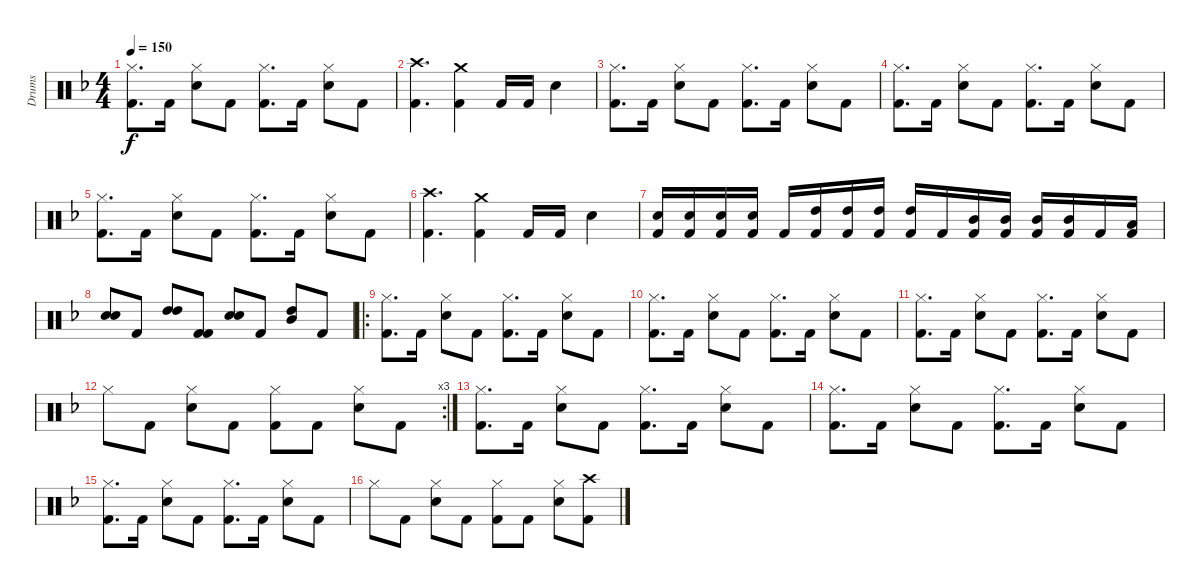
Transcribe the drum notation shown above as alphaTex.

\track ("Drums" "Drums") {instrument percussion}
\staff {score}
\articulation defaults
\ts (4 4)
\tempo 150
\clef neutral
\ks f
("Kick (hit) 2" "Hi-Hat (closed)").8{d dy f} "Kick (hit) 2".16 ("Snare (hit) 2" "Hi-Hat (closed)").8 "Kick (hit) 2".8 ("Kick (hit) 2" "Hi-Hat (closed)").8{d} "Kick (hit) 2".16 ("Snare (hit) 2" "Hi-Hat (closed)").8 "Kick (hit) 2".8 |
("Kick (hit) 2" "Crash high (hit)").4{d} ("Kick (hit) 2" "Crash medium (hit)").4 "Kick (hit) 2".16 "Kick (hit) 2".16 "Snare (hit) 2".4 |
("Kick (hit) 2" "Hi-Hat (closed)").8{d} "Kick (hit) 2".16 ("Snare (hit) 2" "Hi-Hat (closed)").8 "Kick (hit) 2".8 ("Kick (hit) 2" "Hi-Hat (closed)").8{d} "Kick (hit) 2".16 ("Snare (hit) 2" "Hi-Hat (closed)").8 "Kick (hit) 2".8 |
("Kick (hit) 2" "Hi-Hat (closed)").8{d} "Kick (hit) 2".16 ("Snare (hit) 2" "Hi-Hat (closed)").8 "Kick (hit) 2".8 ("Kick (hit) 2" "Hi-Hat (closed)").8{d} "Kick (hit) 2".16 ("Snare (hit) 2" "Hi-Hat (closed)").8 "Kick (hit) 2".8 |
("Kick (hit) 2" "Hi-Hat (closed)").8{d} "Kick (hit) 2".16 ("Snare (hit) 2" "Hi-Hat (closed)").8 "Kick (hit) 2".8 ("Kick (hit) 2" "Hi-Hat (closed)").8{d} "Kick (hit) 2".16 ("Snare (hit) 2" "Hi-Hat (closed)").8 "Kick (hit) 2".8 |
("Kick (hit) 2" "Crash high (hit)").4{d} ("Kick (hit) 2" "Crash medium (hit)").4 "Kick (hit) 2".16 "Kick (hit) 2".16 "Snare (hit) 2".4 |
("Kick (hit) 2" "Snare (hit) 2").16 ("Kick (hit) 2" "Snare (hit) 2").16 ("Kick (hit) 2" "Snare (hit) 2").16 ("Kick (hit) 2" "Snare (hit) 2").16 "Kick (hit) 2".16 ("Kick (hit) 2" "High Tom (hit)").16 ("Kick (hit) 2" "High Tom (hit)").16 ("Kick (hit) 2" "High Tom (hit)").16 ("Kick (hit) 2" "High Tom (hit)").16 "Kick (hit) 2".16 ("Kick (hit) 2" "Mid Tom (hit)").16 ("Kick (hit) 2" "Mid Tom (hit)").16 ("Kick (hit) 2" "Mid Tom (hit)").16 ("Kick (hit) 2" "Mid Tom (hit)").16 "Kick (hit) 2".16 ("Kick (hit) 2" "Low Tom (hit)").16 |
("Electric Snare (hit)" "Electric Snare (hit)").8{bd 480} "Kick (hit) 2".8 ("High Tom (hit)" "High Tom (hit)").8{bd 480} ("Kick (hit) 2" "Kick (hit) 2").8 ("Snare (hit) 2" "Electric Snare (hit)").8{bd 120} "Kick (hit) 2".8 ("High Tom (hit)" "Mid Tom (hit)").8{bd 480} "Kick (hit) 2".8 |
\ro
("Kick (hit) 2" "Hi-Hat (closed)").8{d} "Kick (hit) 2".16 ("Snare (hit) 2" "Hi-Hat (closed)").8 "Kick (hit) 2".8 ("Kick (hit) 2" "Hi-Hat (closed)").8{d} "Kick (hit) 2".16 ("Snare (hit) 2" "Hi-Hat (closed)").8 "Kick (hit) 2".8 |
("Kick (hit) 2" "Hi-Hat (closed)").8{d} "Kick (hit) 2".16 ("Snare (hit) 2" "Hi-Hat (closed)").8 "Kick (hit) 2".8 ("Kick (hit) 2" "Hi-Hat (closed)").8{d} "Kick (hit) 2".16 ("Snare (hit) 2" "Hi-Hat (closed)").8 "Kick (hit) 2".8 |
("Kick (hit) 2" "Hi-Hat (closed)").8{d} "Kick (hit) 2".16 ("Snare (hit) 2" "Hi-Hat (closed)").8 "Kick (hit) 2".8 ("Kick (hit) 2" "Hi-Hat (closed)").8{d} "Kick (hit) 2".16 ("Snare (hit) 2" "Hi-Hat (closed)").8 "Kick (hit) 2".8 |
\rc 3 "Hi-Hat (closed)".8 "Kick (hit) 2".8
("Snare (hit) 2" "Hi-Hat (closed)").8 "Kick (hit) 2".8 ("Kick (hit) 2" "Hi-Hat (closed)").8 "Kick (hit) 2".8 ("Hi-Hat (closed)" "Snare (hit) 2").8 "Kick (hit) 2".8 |
("Kick (hit) 2" "Hi-Hat (closed)").8{d} "Kick (hit) 2".16 ("Snare (hit) 2" "Hi-Hat (closed)").8 "Kick (hit) 2".8 ("Kick (hit) 2" "Hi-Hat (closed)").8{d} "Kick (hit) 2".16 ("Snare (hit) 2" "Hi-Hat (closed)").8 "Kick (hit) 2".8 |
("Kick (hit) 2" "Hi-Hat (closed)").8{d} "Kick (hit) 2".16 ("Snare (hit) 2" "Hi-Hat (closed)").8 "Kick (hit) 2".8 ("Kick (hit) 2" "Hi-Hat (closed)").8{d} "Kick (hit) 2".16 ("Snare (hit) 2" "Hi-Hat (closed)").8 "Kick (hit) 2".8 |
("Kick (hit) 2" "Hi-Hat (closed)").8{d} "Kick (hit) 2".16 ("Snare (hit) 2" "Hi-Hat (closed)").8 "Kick (hit) 2".8 ("Kick (hit) 2" "Hi-Hat (closed)").8{d} "Kick (hit) 2".16 ("Snare (hit) 2" "Hi-Hat (closed)").8 "Kick (hit) 2".8 |
"Hi-Hat (closed)".8 "Kick (hit) 2".8 ("Snare (hit) 2" "Hi-Hat (closed)").8 "Kick (hit) 2".8 ("Kick (hit) 2" "Hi-Hat (closed)").8 "Kick (hit) 2".8 ("Hi-Hat (closed)" "Snare (hit) 2").8 ("Kick (hit) 2" "Crash high (hit)").8
